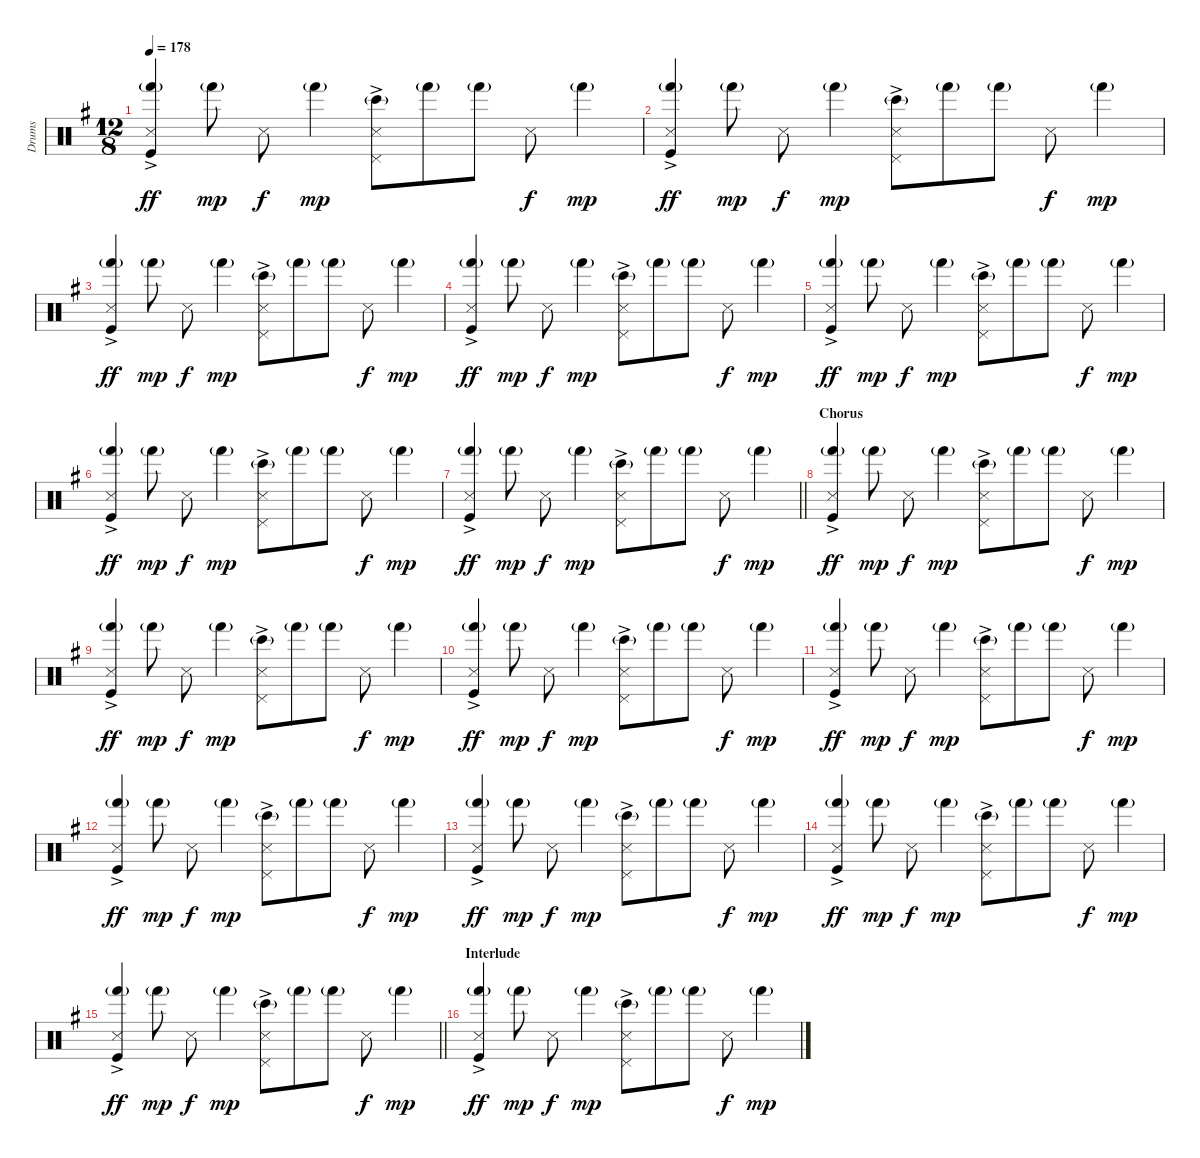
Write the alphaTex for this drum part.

\track ("Drums" "Drums") {instrument percussion}
\staff {score}
\articulation defaults
\ts (12 8)
\tempo 178
\clef neutral
\ks g
("Snare (side stick) 3" "Hand (hit)"{g} "Kick (hit)"{ac}).4{dy ff} "Hand (hit)"{g}.8{dy mp} "Snare (side stick) 3".8{dy f} "Hand (hit)"{g}.4{dy mp} ("Pedal Hi-Hat (hit)"{ac} "Snare (side stick) 3" "Bongo High (hit)"{g}).8 "Hand (hit)"{g}.8 "Hand (hit)"{g}.8 "Snare (side stick) 3".8{dy f} "Hand (hit)"{g}.4{dy mp} |
("Snare (side stick) 3" "Hand (hit)"{g} "Kick (hit)"{ac}).4{dy ff} "Hand (hit)"{g}.8{dy mp} "Snare (side stick) 3".8{dy f} "Hand (hit)"{g}.4{dy mp} ("Pedal Hi-Hat (hit)"{ac} "Snare (side stick) 3" "Bongo High (hit)"{g}).8 "Hand (hit)"{g}.8 "Hand (hit)"{g}.8 "Snare (side stick) 3".8{dy f} "Hand (hit)"{g}.4{dy mp} |
("Snare (side stick) 3" "Hand (hit)"{g} "Kick (hit)"{ac}).4{dy ff} "Hand (hit)"{g}.8{dy mp} "Snare (side stick) 3".8{dy f} "Hand (hit)"{g}.4{dy mp} ("Pedal Hi-Hat (hit)"{ac} "Snare (side stick) 3" "Bongo High (hit)"{g}).8 "Hand (hit)"{g}.8 "Hand (hit)"{g}.8 "Snare (side stick) 3".8{dy f} "Hand (hit)"{g}.4{dy mp} |
("Snare (side stick) 3" "Hand (hit)"{g} "Kick (hit)"{ac}).4{dy ff} "Hand (hit)"{g}.8{dy mp} "Snare (side stick) 3".8{dy f} "Hand (hit)"{g}.4{dy mp} ("Pedal Hi-Hat (hit)"{ac} "Snare (side stick) 3" "Bongo High (hit)"{g}).8 "Hand (hit)"{g}.8 "Hand (hit)"{g}.8 "Snare (side stick) 3".8{dy f} "Hand (hit)"{g}.4{dy mp} |
("Snare (side stick) 3" "Hand (hit)"{g} "Kick (hit)"{ac}).4{dy ff} "Hand (hit)"{g}.8{dy mp} "Snare (side stick) 3".8{dy f} "Hand (hit)"{g}.4{dy mp} ("Pedal Hi-Hat (hit)"{ac} "Snare (side stick) 3" "Bongo High (hit)"{g}).8 "Hand (hit)"{g}.8 "Hand (hit)"{g}.8 "Snare (side stick) 3".8{dy f} "Hand (hit)"{g}.4{dy mp} |
("Snare (side stick) 3" "Hand (hit)"{g} "Kick (hit)"{ac}).4{dy ff} "Hand (hit)"{g}.8{dy mp} "Snare (side stick) 3".8{dy f} "Hand (hit)"{g}.4{dy mp} ("Pedal Hi-Hat (hit)"{ac} "Snare (side stick) 3" "Bongo High (hit)"{g}).8 "Hand (hit)"{g}.8 "Hand (hit)"{g}.8 "Snare (side stick) 3".8{dy f} "Hand (hit)"{g}.4{dy mp} |
\barLineRight lightlight
("Snare (side stick) 3" "Hand (hit)"{g} "Kick (hit)"{ac}).4{dy ff} "Hand (hit)"{g}.8{dy mp} "Snare (side stick) 3".8{dy f} "Hand (hit)"{g}.4{dy mp} ("Pedal Hi-Hat (hit)"{ac} "Snare (side stick) 3" "Bongo High (hit)"{g}).8 "Hand (hit)"{g}.8 "Hand (hit)"{g}.8 "Snare (side stick) 3".8{dy f} "Hand (hit)"{g}.4{dy mp} |
\section ("" "Chorus")
("Snare (side stick) 3" "Hand (hit)"{g} "Kick (hit)"{ac}).4{dy ff} "Hand (hit)"{g}.8{dy mp} "Snare (side stick) 3".8{dy f} "Hand (hit)"{g}.4{dy mp} ("Pedal Hi-Hat (hit)"{ac} "Snare (side stick) 3" "Bongo High (hit)"{g}).8 "Hand (hit)"{g}.8 "Hand (hit)"{g}.8 "Snare (side stick) 3".8{dy f} "Hand (hit)"{g}.4{dy mp} |
("Snare (side stick) 3" "Hand (hit)"{g} "Kick (hit)"{ac}).4{dy ff} "Hand (hit)"{g}.8{dy mp} "Snare (side stick) 3".8{dy f} "Hand (hit)"{g}.4{dy mp} ("Pedal Hi-Hat (hit)"{ac} "Snare (side stick) 3" "Bongo High (hit)"{g}).8 "Hand (hit)"{g}.8 "Hand (hit)"{g}.8 "Snare (side stick) 3".8{dy f} "Hand (hit)"{g}.4{dy mp} |
("Snare (side stick) 3" "Hand (hit)"{g} "Kick (hit)"{ac}).4{dy ff} "Hand (hit)"{g}.8{dy mp} "Snare (side stick) 3".8{dy f} "Hand (hit)"{g}.4{dy mp} ("Pedal Hi-Hat (hit)"{ac} "Snare (side stick) 3" "Bongo High (hit)"{g}).8 "Hand (hit)"{g}.8 "Hand (hit)"{g}.8 "Snare (side stick) 3".8{dy f} "Hand (hit)"{g}.4{dy mp} |
("Snare (side stick) 3" "Hand (hit)"{g} "Kick (hit)"{ac}).4{dy ff} "Hand (hit)"{g}.8{dy mp} "Snare (side stick) 3".8{dy f} "Hand (hit)"{g}.4{dy mp} ("Pedal Hi-Hat (hit)"{ac} "Snare (side stick) 3" "Bongo High (hit)"{g}).8 "Hand (hit)"{g}.8 "Hand (hit)"{g}.8 "Snare (side stick) 3".8{dy f} "Hand (hit)"{g}.4{dy mp} |
("Snare (side stick) 3" "Hand (hit)"{g} "Kick (hit)"{ac}).4{dy ff} "Hand (hit)"{g}.8{dy mp} "Snare (side stick) 3".8{dy f} "Hand (hit)"{g}.4{dy mp} ("Pedal Hi-Hat (hit)"{ac} "Snare (side stick) 3" "Bongo High (hit)"{g}).8 "Hand (hit)"{g}.8 "Hand (hit)"{g}.8 "Snare (side stick) 3".8{dy f} "Hand (hit)"{g}.4{dy mp} |
("Snare (side stick) 3" "Hand (hit)"{g} "Kick (hit)"{ac}).4{dy ff} "Hand (hit)"{g}.8{dy mp} "Snare (side stick) 3".8{dy f} "Hand (hit)"{g}.4{dy mp} ("Pedal Hi-Hat (hit)"{ac} "Snare (side stick) 3" "Bongo High (hit)"{g}).8 "Hand (hit)"{g}.8 "Hand (hit)"{g}.8 "Snare (side stick) 3".8{dy f} "Hand (hit)"{g}.4{dy mp} |
("Snare (side stick) 3" "Hand (hit)"{g} "Kick (hit)"{ac}).4{dy ff} "Hand (hit)"{g}.8{dy mp} "Snare (side stick) 3".8{dy f} "Hand (hit)"{g}.4{dy mp} ("Pedal Hi-Hat (hit)"{ac} "Snare (side stick) 3" "Bongo High (hit)"{g}).8 "Hand (hit)"{g}.8 "Hand (hit)"{g}.8 "Snare (side stick) 3".8{dy f} "Hand (hit)"{g}.4{dy mp} |
\barLineRight lightlight
("Snare (side stick) 3" "Hand (hit)"{g} "Kick (hit)"{ac}).4{dy ff} "Hand (hit)"{g}.8{dy mp} "Snare (side stick) 3".8{dy f} "Hand (hit)"{g}.4{dy mp} ("Pedal Hi-Hat (hit)"{ac} "Snare (side stick) 3" "Bongo High (hit)"{g}).8 "Hand (hit)"{g}.8 "Hand (hit)"{g}.8 "Snare (side stick) 3".8{dy f} "Hand (hit)"{g}.4{dy mp} |
\section ("" "Interlude")
("Snare (side stick) 3" "Hand (hit)"{g} "Kick (hit)"{ac}).4{dy ff} "Hand (hit)"{g}.8{dy mp} "Snare (side stick) 3".8{dy f} "Hand (hit)"{g}.4{dy mp} ("Pedal Hi-Hat (hit)"{ac} "Snare (side stick) 3" "Bongo High (hit)"{g}).8 "Hand (hit)"{g}.8 "Hand (hit)"{g}.8 "Snare (side stick) 3".8{dy f} "Hand (hit)"{g}.4{dy mp}
